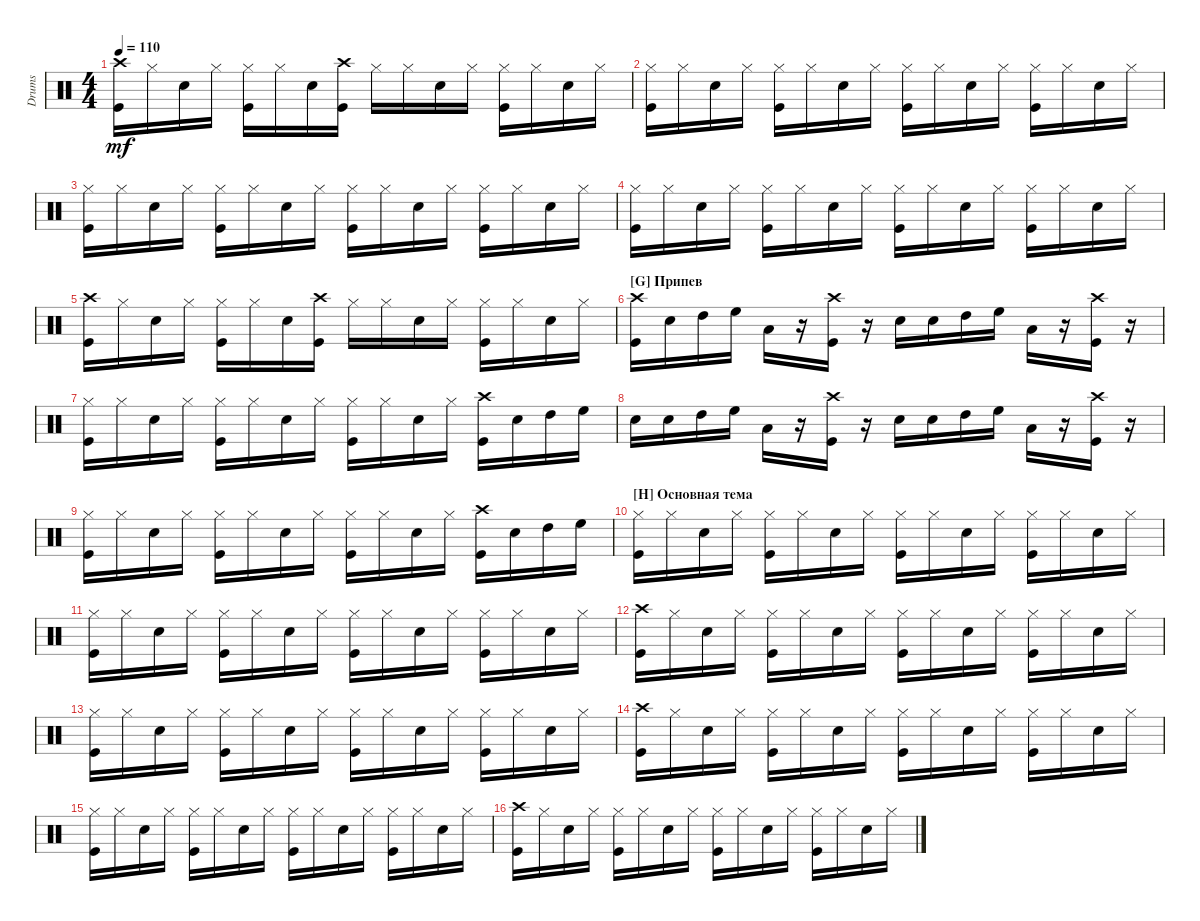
\track ("Drumkit" "Drums") {instrument percussion}
\staff {score}
\articulation defaults
\ts (4 4)
\tempo 110
\clef neutral
\scale
0.333333
\ks c
("Kick (hit)" "Crash high (hit)").16{dy mf} "Hi-Hat (closed)".16 "Snare (hit) 2".16 "Hi-Hat (closed)".16 ("Kick (hit)" "Hi-Hat (closed)").16 "Hi-Hat (closed)".16 "Snare (hit) 2".16 ("Crash high (hit)" "Kick (hit)").16 "Hi-Hat (closed)".16 "Hi-Hat (closed)".16 "Snare (hit) 2".16 "Hi-Hat (closed)".16 ("Kick (hit)" "Hi-Hat (closed)").16 "Hi-Hat (closed)".16 "Snare (hit) 2".16 "Hi-Hat (closed)".16 |
\scale
0.333333 ("Kick (hit)" "Hi-Hat (closed)").16 "Hi-Hat (closed)".16 "Snare (hit) 2".16 "Hi-Hat (closed)".16 ("Kick (hit)" "Hi-Hat (closed)").16 "Hi-Hat (closed)".16 "Snare (hit) 2".16 "Hi-Hat (closed)".16 ("Kick (hit)" "Hi-Hat (closed)").16 "Hi-Hat (closed)".16 "Snare (hit) 2".16 "Hi-Hat (closed)".16 ("Kick (hit)" "Hi-Hat (closed)").16 "Hi-Hat (closed)".16 "Snare (hit) 2".16 "Hi-Hat (closed)".16 |
\scale
0.333333 ("Kick (hit)" "Hi-Hat (closed)").16 "Hi-Hat (closed)".16 "Snare (hit) 2".16 "Hi-Hat (closed)".16 ("Kick (hit)" "Hi-Hat (closed)").16 "Hi-Hat (closed)".16 "Snare (hit) 2".16 "Hi-Hat (closed)".16 ("Kick (hit)" "Hi-Hat (closed)").16 "Hi-Hat (closed)".16 "Snare (hit) 2".16 "Hi-Hat (closed)".16 ("Kick (hit)" "Hi-Hat (closed)").16 "Hi-Hat (closed)".16 "Snare (hit) 2".16 "Hi-Hat (closed)".16 |
\scale
0.333333 ("Kick (hit)" "Hi-Hat (closed)").16 "Hi-Hat (closed)".16 "Snare (hit) 2".16 "Hi-Hat (closed)".16 ("Kick (hit)" "Hi-Hat (closed)").16 "Hi-Hat (closed)".16 "Snare (hit) 2".16 "Hi-Hat (closed)".16 ("Kick (hit)" "Hi-Hat (closed)").16 "Hi-Hat (closed)".16 "Snare (hit) 2".16 "Hi-Hat (closed)".16 ("Kick (hit)" "Hi-Hat (closed)").16 "Hi-Hat (closed)".16 "Snare (hit) 2".16 "Hi-Hat (closed)".16 |
\scale
0.333333 ("Kick (hit)" "Crash high (hit)").16 "Hi-Hat (closed)".16 "Snare (hit) 2".16 "Hi-Hat (closed)".16 ("Kick (hit)" "Hi-Hat (closed)").16 "Hi-Hat (closed)".16 "Snare (hit) 2".16 ("Crash high (hit)" "Kick (hit)").16 "Hi-Hat (closed)".16 "Hi-Hat (closed)".16 "Snare (hit) 2".16 "Hi-Hat (closed)".16 ("Kick (hit)" "Hi-Hat (closed)").16 "Hi-Hat (closed)".16 "Snare (hit) 2".16 "Hi-Hat (closed)".16 |
\section ("G" "Припев")
\scale
0.333333 ("Crash high (hit)" "Kick (hit)").16 "Snare (hit) 2".16 "High Tom (hit)".16 "High Floor Tom (hit)".16 "Low Tom (hit)".16 r.16 ("Crash high (hit)" "Kick (hit)").16 r.16 "Snare (hit) 2".16 "Snare (hit) 2".16 "High Tom (hit)".16 "High Floor Tom (hit)".16 "Low Tom (hit)".16 r.16 ("Crash high (hit)" "Kick (hit)").16 r.16 |
\scale
0.333333 ("Kick (hit)" "Hi-Hat (closed)").16 "Hi-Hat (closed)".16 "Snare (hit) 2".16 "Hi-Hat (closed)".16 ("Kick (hit)" "Hi-Hat (closed)").16 "Hi-Hat (closed)".16 "Snare (hit) 2".16 "Hi-Hat (closed)".16 ("Kick (hit)" "Hi-Hat (closed)").16 "Hi-Hat (closed)".16 "Snare (hit) 2".16 "Hi-Hat (closed)".16 ("Kick (hit)" "Crash high (hit)").16 "Snare (hit) 2".16 "High Tom (hit)".16 "High Floor Tom (hit)".16 |
\scale
0.333333 "Snare (hit) 2".16 "Snare (hit) 2".16 "High Tom (hit)".16 "High Floor Tom (hit)".16 "Low Tom (hit)".16 r.16 ("Crash high (hit)" "Kick (hit)").16 r.16 "Snare (hit) 2".16 "Snare (hit) 2".16 "High Tom (hit)".16 "High Floor Tom (hit)".16 "Low Tom (hit)".16 r.16 ("Crash high (hit)" "Kick (hit)").16 r.16 |
\scale
0.333333 ("Kick (hit)" "Hi-Hat (closed)").16 "Hi-Hat (closed)".16 "Snare (hit) 2".16 "Hi-Hat (closed)".16 ("Kick (hit)" "Hi-Hat (closed)").16 "Hi-Hat (closed)".16 "Snare (hit) 2".16 "Hi-Hat (closed)".16 ("Kick (hit)" "Hi-Hat (closed)").16 "Hi-Hat (closed)".16 "Snare (hit) 2".16 "Hi-Hat (closed)".16 ("Kick (hit)" "Crash high (hit)").16 "Snare (hit) 2".16 "High Tom (hit)".16 "High Floor Tom (hit)".16 |
\section ("H" "Основная тема")
\scale
0.333333 ("Kick (hit)" "Hi-Hat (closed)").16 "Hi-Hat (closed)".16 "Snare (hit) 2".16 "Hi-Hat (closed)".16 ("Kick (hit)" "Hi-Hat (closed)").16 "Hi-Hat (closed)".16 "Snare (hit) 2".16 "Hi-Hat (closed)".16 ("Kick (hit)" "Hi-Hat (closed)").16 "Hi-Hat (closed)".16 "Snare (hit) 2".16 "Hi-Hat (closed)".16 ("Kick (hit)" "Hi-Hat (closed)").16 "Hi-Hat (closed)".16 "Snare (hit) 2".16 "Hi-Hat (closed)".16 |
\scale
0.333333 ("Kick (hit)" "Hi-Hat (closed)").16 "Hi-Hat (closed)".16 "Snare (hit) 2".16 "Hi-Hat (closed)".16 ("Kick (hit)" "Hi-Hat (closed)").16 "Hi-Hat (closed)".16 "Snare (hit) 2".16 "Hi-Hat (closed)".16 ("Kick (hit)" "Hi-Hat (closed)").16 "Hi-Hat (closed)".16 "Snare (hit) 2".16 "Hi-Hat (closed)".16 ("Kick (hit)" "Hi-Hat (closed)").16 "Hi-Hat (closed)".16 "Snare (hit) 2".16 "Hi-Hat (closed)".16 |
\scale
0.333333 ("Kick (hit)" "Crash high (hit)").16 "Hi-Hat (closed)".16 "Snare (hit) 2".16 "Hi-Hat (closed)".16 ("Kick (hit)" "Hi-Hat (closed)").16 "Hi-Hat (closed)".16 "Snare (hit) 2".16 "Hi-Hat (closed)".16 ("Kick (hit)" "Hi-Hat (closed)").16 "Hi-Hat (closed)".16 "Snare (hit) 2".16 "Hi-Hat (closed)".16 ("Kick (hit)" "Hi-Hat (closed)").16 "Hi-Hat (closed)".16 "Snare (hit) 2".16 "Hi-Hat (closed)".16 |
\scale
0.333333 ("Kick (hit)" "Hi-Hat (closed)").16 "Hi-Hat (closed)".16 "Snare (hit) 2".16 "Hi-Hat (closed)".16 ("Kick (hit)" "Hi-Hat (closed)").16 "Hi-Hat (closed)".16 "Snare (hit) 2".16 "Hi-Hat (closed)".16 ("Kick (hit)" "Hi-Hat (closed)").16 "Hi-Hat (closed)".16 "Snare (hit) 2".16 "Hi-Hat (closed)".16 ("Kick (hit)" "Hi-Hat (closed)").16 "Hi-Hat (closed)".16 "Snare (hit) 2".16 "Hi-Hat (closed)".16 |
\scale
0.333333 ("Kick (hit)" "Crash high (hit)").16 "Hi-Hat (closed)".16 "Snare (hit) 2".16 "Hi-Hat (closed)".16 ("Kick (hit)" "Hi-Hat (closed)").16 "Hi-Hat (closed)".16 "Snare (hit) 2".16 "Hi-Hat (closed)".16 ("Kick (hit)" "Hi-Hat (closed)").16 "Hi-Hat (closed)".16 "Snare (hit) 2".16 "Hi-Hat (closed)".16 ("Kick (hit)" "Hi-Hat (closed)").16 "Hi-Hat (closed)".16 "Snare (hit) 2".16 "Hi-Hat (closed)".16 |
\scale
0.333333 ("Kick (hit)" "Hi-Hat (closed)").16 "Hi-Hat (closed)".16 "Snare (hit) 2".16 "Hi-Hat (closed)".16 ("Kick (hit)" "Hi-Hat (closed)").16 "Hi-Hat (closed)".16 "Snare (hit) 2".16 "Hi-Hat (closed)".16 ("Kick (hit)" "Hi-Hat (closed)").16 "Hi-Hat (closed)".16 "Snare (hit) 2".16 "Hi-Hat (closed)".16 ("Kick (hit)" "Hi-Hat (closed)").16 "Hi-Hat (closed)".16 "Snare (hit) 2".16 "Hi-Hat (closed)".16 |
\scale
0.333333 ("Kick (hit)" "Crash high (hit)").16 "Hi-Hat (closed)".16 "Snare (hit) 2".16 "Hi-Hat (closed)".16 ("Kick (hit)" "Hi-Hat (closed)").16 "Hi-Hat (closed)".16 "Snare (hit) 2".16 "Hi-Hat (closed)".16 ("Kick (hit)" "Hi-Hat (closed)").16 "Hi-Hat (closed)".16 "Snare (hit) 2".16 "Hi-Hat (closed)".16 ("Kick (hit)" "Hi-Hat (closed)").16 "Hi-Hat (closed)".16 "Snare (hit) 2".16 "Hi-Hat (closed)".16
